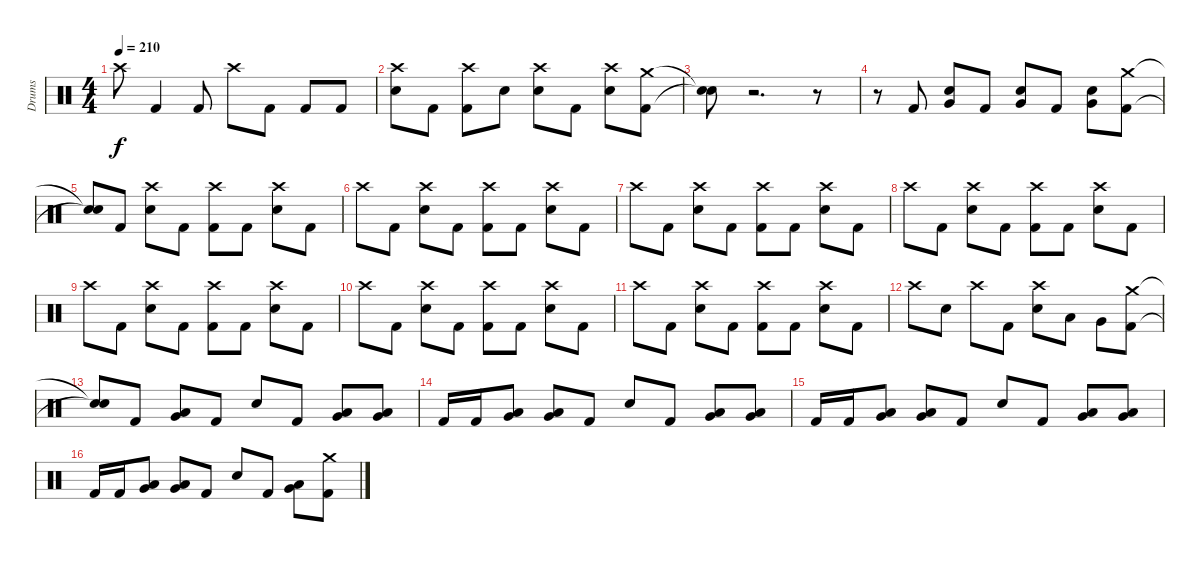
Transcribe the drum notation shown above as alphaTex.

\track ("Drums" "Drums") {instrument percussion}
\staff {score}
\articulation defaults
\ts (4 4)
\tempo 210
\clef neutral
\ks c "Crash high (hit)".8{dy f} "Kick (hit) 2".4 "Kick (hit) 2".8 "Crash high (hit)".8 "Kick (hit) 2".8 "Kick (hit) 2".8 "Kick (hit) 2".8
|
("Crash high (hit)" "Electric Snare (hit)").8 "Kick (hit) 2".8 ("Crash high (hit)" "Kick (hit) 2").8 "Electric Snare (hit)".8 ("Crash high (hit)" "Electric Snare (hit)").8 "Kick (hit) 2".8 ("Crash high (hit)" "Electric Snare (hit)").8 ("Crash medium (hit)" "Kick (hit) 2").8 |
("Snare (hit)"{t} "Snare (hit)"{t}).8 r.2{d volume 0} r.8 |
r.8 "Kick (hit) 2".8{volume 16} ("Very Low Tom (hit)" "Electric Snare (hit)").8 "Kick (hit) 2".8 ("Very Low Tom (hit)" "Electric Snare (hit)").8 "Kick (hit) 2".8 ("Very Low Tom (hit)" "Electric Snare (hit)").8 ("Crash medium (hit)" "Kick (hit) 2").8 |
("Snare (hit)"{t} "Snare (hit)"{t}).8 "Kick (hit) 2".8 ("Crash high (hit)" "Electric Snare (hit)").8 "Kick (hit) 2".8 ("Crash high (hit)" "Kick (hit) 2").8 "Kick (hit) 2".8 ("Crash high (hit)" "Electric Snare (hit)").8 "Kick (hit) 2".8 |
"Crash high (hit)".8 "Kick (hit) 2".8 ("Crash high (hit)" "Electric Snare (hit)").8 "Kick (hit) 2".8 ("Crash high (hit)" "Kick (hit) 2").8 "Kick (hit) 2".8 ("Crash high (hit)" "Electric Snare (hit)").8 "Kick (hit) 2".8 |
"Crash high (hit)".8 "Kick (hit) 2".8 ("Crash high (hit)" "Electric Snare (hit)").8 "Kick (hit) 2".8 ("Crash high (hit)" "Kick (hit) 2").8 "Kick (hit) 2".8 ("Crash high (hit)" "Electric Snare (hit)").8 "Kick (hit) 2".8 |
"Crash high (hit)".8 "Kick (hit) 2".8 ("Crash high (hit)" "Electric Snare (hit)").8 "Kick (hit) 2".8 ("Crash high (hit)" "Kick (hit) 2").8 "Kick (hit) 2".8 ("Crash high (hit)" "Electric Snare (hit)").8 "Kick (hit) 2".8 |
"Crash high (hit)".8 "Kick (hit) 2".8 ("Crash high (hit)" "Electric Snare (hit)").8 "Kick (hit) 2".8 ("Crash high (hit)" "Kick (hit) 2").8 "Kick (hit) 2".8 ("Crash high (hit)" "Electric Snare (hit)").8 "Kick (hit) 2".8 |
"Crash high (hit)".8 "Kick (hit) 2".8 ("Crash high (hit)" "Electric Snare (hit)").8 "Kick (hit) 2".8 ("Crash high (hit)" "Kick (hit) 2").8 "Kick (hit) 2".8 ("Crash high (hit)" "Electric Snare (hit)").8 "Kick (hit) 2".8 |
"Crash high (hit)".8 "Kick (hit) 2".8 ("Crash high (hit)" "Electric Snare (hit)").8 "Kick (hit) 2".8 ("Crash high (hit)" "Kick (hit) 2").8 "Kick (hit) 2".8 ("Crash high (hit)" "Electric Snare (hit)").8 "Kick (hit) 2".8 |
"Crash high (hit)".8 "Electric Snare (hit)".8 "Crash high (hit)".8 "Kick (hit) 2".8 ("Crash high (hit)" "Electric Snare (hit)").8 "Low Tom (hit)".8 "Very Low Tom (hit)".8 ("Crash medium (hit)" "Kick (hit) 2").8 |
("Snare (hit)"{t} "Snare (hit)"{t}).8 "Kick (hit) 2".8 ("Low Tom (hit)" "Very Low Tom (hit)").8 "Kick (hit) 2".8 "Electric Snare (hit)".8 "Kick (hit) 2".8 ("Low Tom (hit)" "Very Low Tom (hit)").8 ("Low Tom (hit)" "Very Low Tom (hit)").8 |
"Kick (hit) 2".16 "Kick (hit) 2".16 ("Low Tom (hit)" "Very Low Tom (hit)").8 ("Low Tom (hit)" "Very Low Tom (hit)").8 "Kick (hit) 2".8 "Electric Snare (hit)".8 "Kick (hit) 2".8 ("Low Tom (hit)" "Very Low Tom (hit)").8 ("Low Tom (hit)" "Very Low Tom (hit)").8 |
"Kick (hit) 2".16 "Kick (hit) 2".16 ("Low Tom (hit)" "Very Low Tom (hit)").8 ("Low Tom (hit)" "Very Low Tom (hit)").8 "Kick (hit) 2".8 "Electric Snare (hit)".8 "Kick (hit) 2".8 ("Low Tom (hit)" "Very Low Tom (hit)").8 ("Low Tom (hit)" "Very Low Tom (hit)").8 |
"Kick (hit) 2".16 "Kick (hit) 2".16 ("Low Tom (hit)" "Very Low Tom (hit)").8 ("Low Tom (hit)" "Very Low Tom (hit)").8 "Kick (hit) 2".8 "Electric Snare (hit)".8 "Kick (hit) 2".8 ("Low Tom (hit)" "Very Low Tom (hit)").8 ("Crash medium (hit)" "Kick (hit) 2").8
